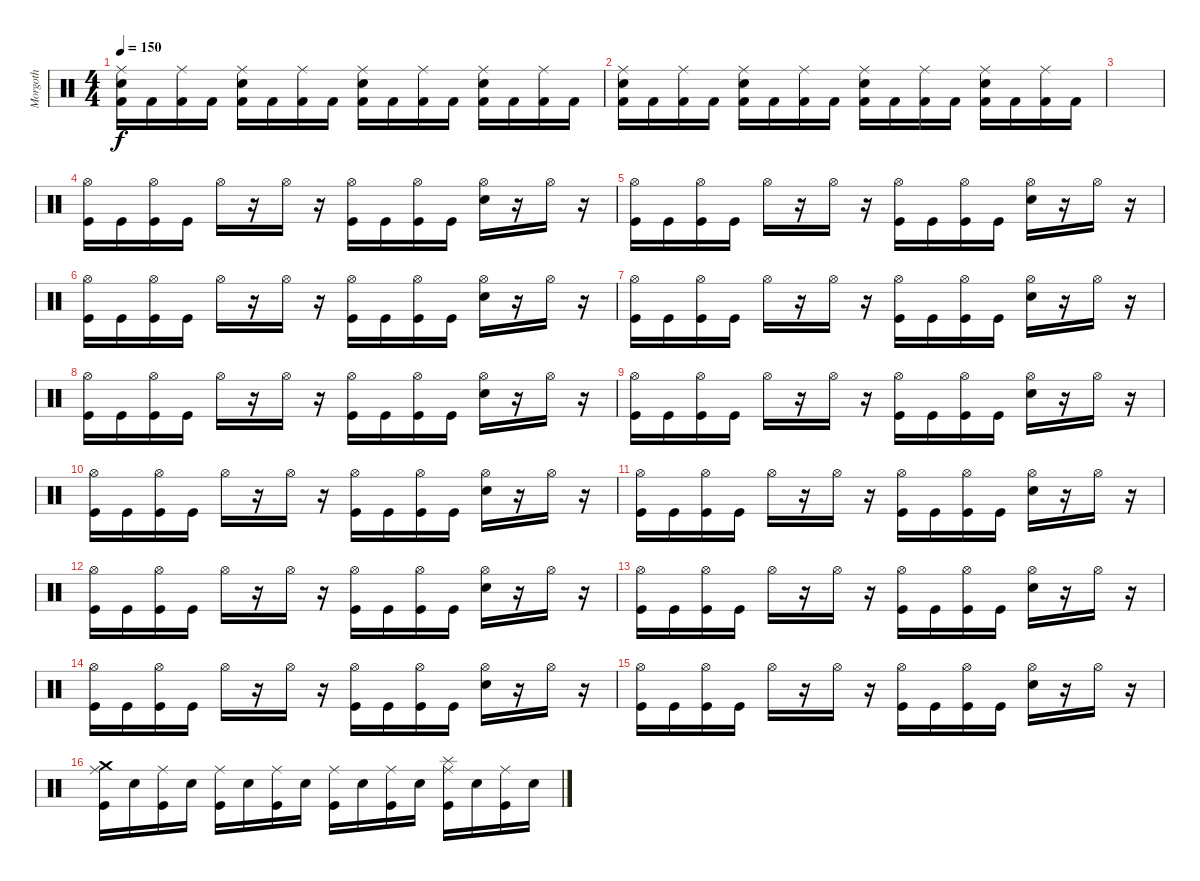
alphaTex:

\track ("Morgoth" "Morgoth") {instrument percussion}
\staff {score}
\articulation defaults
\ts (4 4)
\tempo 150
\clef neutral
\ks c
("Ride (middle)" "Electric Snare (hit)" "Kick (hit) 2").16{dy f} "Kick (hit) 2".16 ("Ride (middle)" "Kick (hit) 2").16 "Kick (hit) 2".16 ("Ride (middle)" "Electric Snare (hit)" "Kick (hit) 2").16 "Kick (hit) 2".16 ("Ride (middle)" "Kick (hit) 2").16 "Kick (hit) 2".16 ("Ride (middle)" "Electric Snare (hit)" "Kick (hit) 2").16 "Kick (hit) 2".16 ("Ride (middle)" "Kick (hit) 2").16 "Kick (hit) 2".16 ("Ride (middle)" "Electric Snare (hit)" "Kick (hit) 2").16 "Kick (hit) 2".16 ("Ride (middle)" "Kick (hit) 2").16 "Kick (hit) 2".16 |
("Ride (middle)" "Electric Snare (hit)" "Kick (hit) 2").16 "Kick (hit) 2".16 ("Ride (middle)" "Kick (hit) 2").16 "Kick (hit) 2".16 ("Ride (middle)" "Electric Snare (hit)" "Kick (hit) 2").16 "Kick (hit) 2".16 ("Ride (middle)" "Kick (hit) 2").16 "Kick (hit) 2".16 ("Ride (middle)" "Electric Snare (hit)" "Kick (hit) 2").16 "Kick (hit) 2".16 ("Ride (middle)" "Kick (hit) 2").16 "Kick (hit) 2".16 ("Ride (middle)" "Electric Snare (hit)" "Kick (hit) 2").16 "Kick (hit) 2".16 ("Ride (middle)" "Kick (hit) 2").16 "Kick (hit) 2".16 |
|
("Kick (hit)" "Hi-Hat (open)").16 "Kick (hit)".16 ("Kick (hit)" "Hi-Hat (open)").16 "Kick (hit)".16 "Hi-Hat (open)".16 r.16 "Hi-Hat (open)".16 r.16 ("Kick (hit)" "Hi-Hat (open)").16 "Kick (hit)".16 ("Kick (hit)" "Hi-Hat (open)").16 "Kick (hit)".16 ("Electric Snare (hit)" "Hi-Hat (open)").16 r.16 "Hi-Hat (open)".16 r.16 |
("Kick (hit)" "Hi-Hat (open)").16 "Kick (hit)".16 ("Kick (hit)" "Hi-Hat (open)").16 "Kick (hit)".16 "Hi-Hat (open)".16 r.16 "Hi-Hat (open)".16 r.16 ("Kick (hit)" "Hi-Hat (open)").16 "Kick (hit)".16 ("Kick (hit)" "Hi-Hat (open)").16 "Kick (hit)".16 ("Electric Snare (hit)" "Hi-Hat (open)").16 r.16 "Hi-Hat (open)".16 r.16 |
("Kick (hit)" "Hi-Hat (open)").16 "Kick (hit)".16 ("Kick (hit)" "Hi-Hat (open)").16 "Kick (hit)".16 "Hi-Hat (open)".16 r.16 "Hi-Hat (open)".16 r.16 ("Kick (hit)" "Hi-Hat (open)").16 "Kick (hit)".16 ("Kick (hit)" "Hi-Hat (open)").16 "Kick (hit)".16 ("Electric Snare (hit)" "Hi-Hat (open)").16 r.16 "Hi-Hat (open)".16 r.16 |
("Kick (hit)" "Hi-Hat (open)").16 "Kick (hit)".16 ("Kick (hit)" "Hi-Hat (open)").16 "Kick (hit)".16 "Hi-Hat (open)".16 r.16 "Hi-Hat (open)".16 r.16 ("Kick (hit)" "Hi-Hat (open)").16 "Kick (hit)".16 ("Kick (hit)" "Hi-Hat (open)").16 "Kick (hit)".16 ("Electric Snare (hit)" "Hi-Hat (open)").16 r.16 "Hi-Hat (open)".16 r.16 |
("Kick (hit)" "Hi-Hat (open)").16 "Kick (hit)".16 ("Kick (hit)" "Hi-Hat (open)").16 "Kick (hit)".16 "Hi-Hat (open)".16 r.16 "Hi-Hat (open)".16 r.16 ("Kick (hit)" "Hi-Hat (open)").16 "Kick (hit)".16 ("Kick (hit)" "Hi-Hat (open)").16 "Kick (hit)".16 ("Electric Snare (hit)" "Hi-Hat (open)").16 r.16 "Hi-Hat (open)".16 r.16 |
("Kick (hit)" "Hi-Hat (open)").16 "Kick (hit)".16 ("Kick (hit)" "Hi-Hat (open)").16 "Kick (hit)".16 "Hi-Hat (open)".16 r.16 "Hi-Hat (open)".16 r.16 ("Kick (hit)" "Hi-Hat (open)").16 "Kick (hit)".16 ("Kick (hit)" "Hi-Hat (open)").16 "Kick (hit)".16 ("Electric Snare (hit)" "Hi-Hat (open)").16 r.16 "Hi-Hat (open)".16 r.16 |
("Kick (hit)" "Hi-Hat (open)").16 "Kick (hit)".16 ("Kick (hit)" "Hi-Hat (open)").16 "Kick (hit)".16 "Hi-Hat (open)".16 r.16 "Hi-Hat (open)".16 r.16 ("Kick (hit)" "Hi-Hat (open)").16 "Kick (hit)".16 ("Kick (hit)" "Hi-Hat (open)").16 "Kick (hit)".16 ("Electric Snare (hit)" "Hi-Hat (open)").16 r.16 "Hi-Hat (open)".16 r.16 |
("Kick (hit)" "Hi-Hat (open)").16 "Kick (hit)".16 ("Kick (hit)" "Hi-Hat (open)").16 "Kick (hit)".16 "Hi-Hat (open)".16 r.16 "Hi-Hat (open)".16 r.16 ("Kick (hit)" "Hi-Hat (open)").16 "Kick (hit)".16 ("Kick (hit)" "Hi-Hat (open)").16 "Kick (hit)".16 ("Electric Snare (hit)" "Hi-Hat (open)").16 r.16 "Hi-Hat (open)".16 r.16 |
("Kick (hit)" "Hi-Hat (open)").16 "Kick (hit)".16 ("Kick (hit)" "Hi-Hat (open)").16 "Kick (hit)".16 "Hi-Hat (open)".16 r.16 "Hi-Hat (open)".16 r.16 ("Kick (hit)" "Hi-Hat (open)").16 "Kick (hit)".16 ("Kick (hit)" "Hi-Hat (open)").16 "Kick (hit)".16 ("Electric Snare (hit)" "Hi-Hat (open)").16 r.16 "Hi-Hat (open)".16 r.16 |
("Kick (hit)" "Hi-Hat (open)").16 "Kick (hit)".16 ("Kick (hit)" "Hi-Hat (open)").16 "Kick (hit)".16 "Hi-Hat (open)".16 r.16 "Hi-Hat (open)".16 r.16 ("Kick (hit)" "Hi-Hat (open)").16 "Kick (hit)".16 ("Kick (hit)" "Hi-Hat (open)").16 "Kick (hit)".16 ("Electric Snare (hit)" "Hi-Hat (open)").16 r.16 "Hi-Hat (open)".16 r.16 |
("Kick (hit)" "Hi-Hat (open)").16 "Kick (hit)".16 ("Kick (hit)" "Hi-Hat (open)").16 "Kick (hit)".16 "Hi-Hat (open)".16 r.16 "Hi-Hat (open)".16 r.16 ("Kick (hit)" "Hi-Hat (open)").16 "Kick (hit)".16 ("Kick (hit)" "Hi-Hat (open)").16 "Kick (hit)".16 ("Electric Snare (hit)" "Hi-Hat (open)").16 r.16 "Hi-Hat (open)".16 r.16 |
("Kick (hit)" "Hi-Hat (open)").16 "Kick (hit)".16 ("Kick (hit)" "Hi-Hat (open)").16 "Kick (hit)".16 "Hi-Hat (open)".16 r.16 "Hi-Hat (open)".16 r.16 ("Kick (hit)" "Hi-Hat (open)").16 "Kick (hit)".16 ("Kick (hit)" "Hi-Hat (open)").16 "Kick (hit)".16 ("Electric Snare (hit)" "Hi-Hat (open)").16 r.16 "Hi-Hat (open)".16 r.16 |
("Kick (hit)" "Ride (middle)" "Crash medium (hit)").16 "Electric Snare (hit)".16 ("Kick (hit)" "Ride (middle)").16 "Electric Snare (hit)".16 ("Kick (hit)" "Ride (middle)").16 "Electric Snare (hit)".16 ("Kick (hit)" "Ride (middle)").16 "Electric Snare (hit)".16 ("Kick (hit)" "Ride (middle)").16 "Electric Snare (hit)".16 ("Kick (hit)" "Ride (middle)").16 "Electric Snare (hit)".16 ("Kick (hit)" "Ride (middle)" "Splash (hit)").16 "Electric Snare (hit)".16 ("Kick (hit)" "Ride (middle)").16 "Electric Snare (hit)".16
